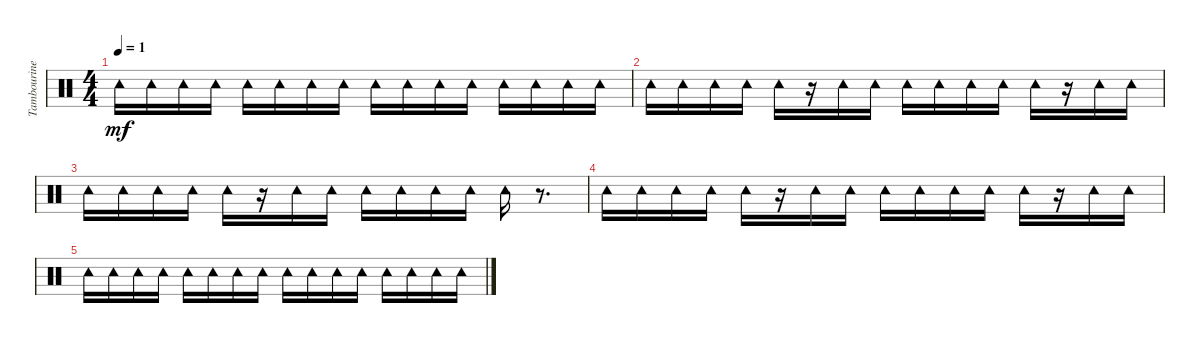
\track ("Tambourine" "Tambourine") {instrument percussion}
\staff {score}
\articulation defaults
\ts (4 4)
\tempo 1
\clef neutral
\ks c "Tambourine (hit)".16{dy mf} "Tambourine (hit)".16 "Tambourine (hit)".16 "Tambourine (hit)".16 "Tambourine (hit)".16 "Tambourine (hit)".16 "Tambourine (hit)".16 "Tambourine (hit)".16 "Tambourine (hit)".16 "Tambourine (hit)".16 "Tambourine (hit)".16 "Tambourine (hit)".16 "Tambourine (hit)".16 "Tambourine (hit)".16 "Tambourine (hit)".16 "Tambourine (hit)".16
|
"Tambourine (hit)".16 "Tambourine (hit)".16 "Tambourine (hit)".16 "Tambourine (hit)".16 "Tambourine (hit)".16 r.16 "Tambourine (hit)".16 "Tambourine (hit)".16 "Tambourine (hit)".16 "Tambourine (hit)".16 "Tambourine (hit)".16 "Tambourine (hit)".16 "Tambourine (hit)".16 r.16 "Tambourine (hit)".16 "Tambourine (hit)".16 |
"Tambourine (hit)".16 "Tambourine (hit)".16 "Tambourine (hit)".16 "Tambourine (hit)".16 "Tambourine (hit)".16 r.16 "Tambourine (hit)".16 "Tambourine (hit)".16 "Tambourine (hit)".16 "Tambourine (hit)".16 "Tambourine (hit)".16 "Tambourine (hit)".16 "Tambourine (hit)".16 r.8{d} |
"Tambourine (hit)".16 "Tambourine (hit)".16 "Tambourine (hit)".16 "Tambourine (hit)".16 "Tambourine (hit)".16 r.16 "Tambourine (hit)".16 "Tambourine (hit)".16 "Tambourine (hit)".16 "Tambourine (hit)".16 "Tambourine (hit)".16 "Tambourine (hit)".16 "Tambourine (hit)".16 r.16 "Tambourine (hit)".16 "Tambourine (hit)".16 |
"Tambourine (hit)".16 "Tambourine (hit)".16 "Tambourine (hit)".16 "Tambourine (hit)".16 "Tambourine (hit)".16 "Tambourine (hit)".16 "Tambourine (hit)".16 "Tambourine (hit)".16 "Tambourine (hit)".16 "Tambourine (hit)".16 "Tambourine (hit)".16 "Tambourine (hit)".16 "Tambourine (hit)".16 "Tambourine (hit)".16 "Tambourine (hit)".16 "Tambourine (hit)".16
